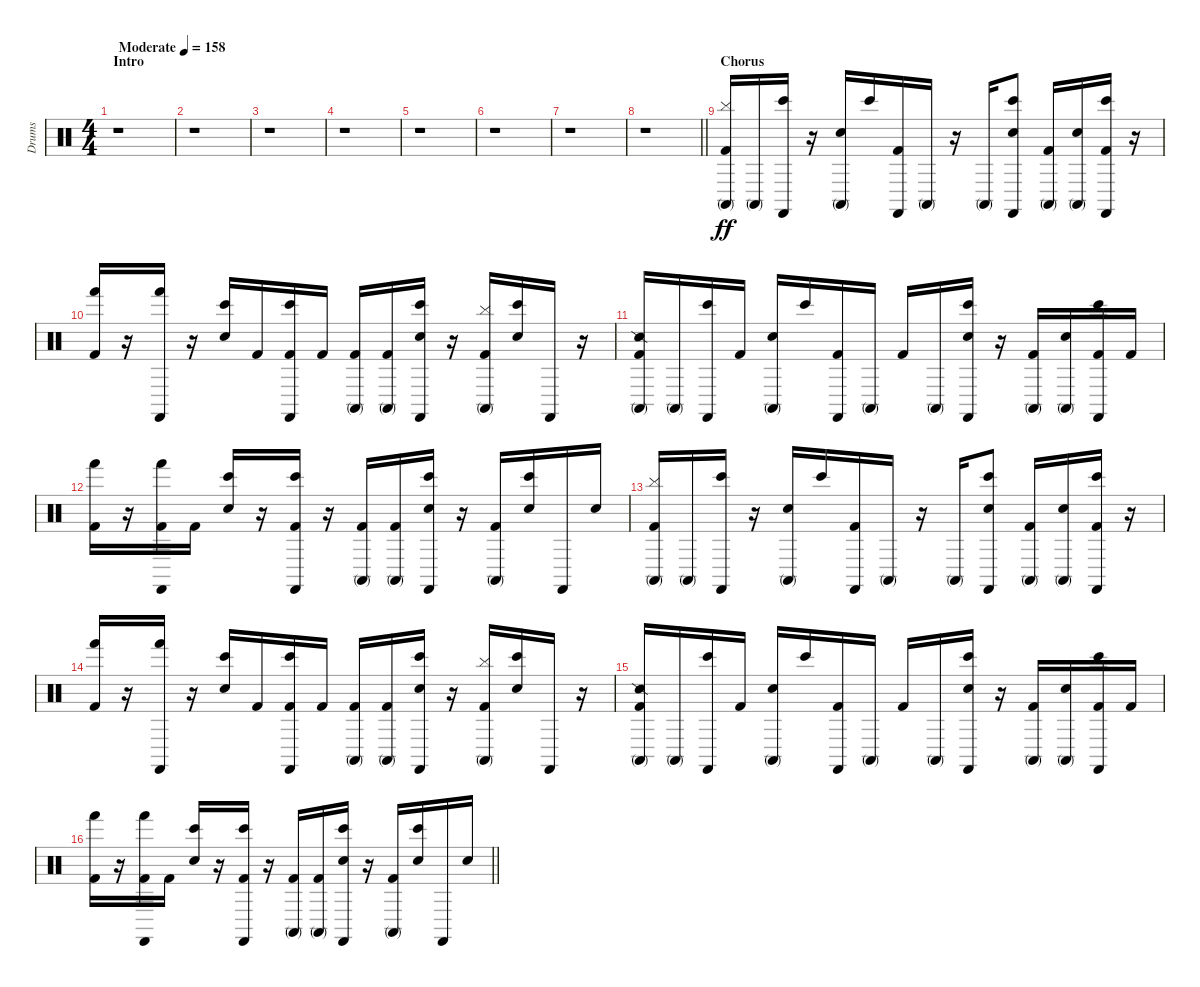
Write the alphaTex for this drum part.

\track ("Drums" "Drums") {instrument percussion}
\staff {score}
\articulation defaults
\ts (4 4)
\section ("" "Intro")
\tempo (158 "Moderate")
\clef neutral
\ks c
r.1{dy ff} |
r.1 |
r.1 |
r.1 |
r.1 |
r.1 |
r.1 |
\barLineRight lightlight
r.1 |
\section ("" "Chorus")
("Cymbal (hit)" "Kick (hit) 2" "Conga high (mute)").16 "Conga high (mute)".16 ("Bongo High (hit)" "Castanets (hit)").16 r.16 ("Snare (hit) 2" "Conga high (mute)").16 "Bongo High (hit)".16 ("Kick (hit) 2" "Castanets (hit)").16 "Conga high (mute)".16 r.16 "Conga high (mute)".16 ("Snare (hit) 2" "Bongo High (hit)" "Castanets (hit)").8 ("Kick (hit) 2" "Conga high (mute)").16 ("Snare (hit) 2" "Conga high (mute)").16 ("Kick (hit) 2" "Bongo High (hit)" "Castanets (hit)").16 r.16 |
("Kick (hit) 2" "Hand (hit)").16 r.16 ("Hand (hit)" "Castanets (hit)").16 r.16 ("Snare (hit) 2" "Bongo High (hit)").16 "Kick (hit) 2".16 ("Kick (hit) 2" "Bongo High (hit)" "Castanets (hit)").16 "Kick (hit) 2".16 ("Kick (hit) 2" "Conga high (mute)").16 ("Kick (hit) 2" "Conga high (mute)").16 ("Snare (hit) 2" "Bongo High (hit)" "Castanets (hit)").16 r.16 ("Cymbal (hit)" "Kick (hit) 2" "Conga high (mute)").16 ("Snare (hit) 2" "Bongo High (hit)").16 "Castanets (hit)".16 r.16 |
("Snare (side stick) 2" "Kick (hit) 2" "Conga high (mute)").16 "Conga high (mute)".16 ("Bongo High (hit)" "Castanets (hit)").16 "Kick (hit) 2".16 ("Snare (hit) 2" "Conga high (mute)").16 "Bongo High (hit)".16 ("Kick (hit) 2" "Castanets (hit)").16 "Conga high (mute)".16 "Kick (hit) 2".16 "Conga high (mute)".16 ("Snare (hit) 2" "Bongo High (hit)" "Castanets (hit)").16 r.16 ("Kick (hit) 2" "Conga high (mute)").16 ("Snare (hit) 2" "Conga high (mute)").16 ("Kick (hit) 2" "Bongo High (hit)" "Castanets (hit)").16 "Kick (hit) 2".16 |
("Kick (hit) 2" "Hand (hit)").16 r.16 ("Kick (hit) 2" "Hand (hit)" "Castanets (hit)").16 "Kick (hit) 2".16 ("Snare (hit) 2" "Bongo High (hit)").16 r.16 ("Kick (hit) 2" "Bongo High (hit)" "Castanets (hit)").16 r.16 ("Kick (hit) 2" "Conga high (mute)").16 ("Kick (hit) 2" "Conga high (mute)").16 ("Snare (hit) 2" "Bongo High (hit)" "Castanets (hit)").16 r.16 ("Kick (hit) 2" "Conga high (mute)").16 ("Snare (hit) 2" "Bongo High (hit)").16 "Castanets (hit)".16 "Snare (hit) 2".16 |
("Cymbal (hit)" "Kick (hit) 2" "Conga high (mute)").16 "Conga high (mute)".16 ("Bongo High (hit)" "Castanets (hit)").16 r.16 ("Snare (hit) 2" "Conga high (mute)").16 "Bongo High (hit)".16 ("Kick (hit) 2" "Castanets (hit)").16 "Conga high (mute)".16 r.16 "Conga high (mute)".16 ("Snare (hit) 2" "Bongo High (hit)" "Castanets (hit)").8 ("Kick (hit) 2" "Conga high (mute)").16 ("Snare (hit) 2" "Conga high (mute)").16 ("Kick (hit) 2" "Bongo High (hit)" "Castanets (hit)").16 r.16 |
("Kick (hit) 2" "Hand (hit)").16 r.16 ("Hand (hit)" "Castanets (hit)").16 r.16 ("Snare (hit) 2" "Bongo High (hit)").16 "Kick (hit) 2".16 ("Kick (hit) 2" "Bongo High (hit)" "Castanets (hit)").16 "Kick (hit) 2".16 ("Kick (hit) 2" "Conga high (mute)").16 ("Kick (hit) 2" "Conga high (mute)").16 ("Snare (hit) 2" "Bongo High (hit)" "Castanets (hit)").16 r.16 ("Cymbal (hit)" "Kick (hit) 2" "Conga high (mute)").16 ("Snare (hit) 2" "Bongo High (hit)").16 "Castanets (hit)".16 r.16 |
("Snare (side stick) 2" "Kick (hit) 2" "Conga high (mute)").16 "Conga high (mute)".16 ("Bongo High (hit)" "Castanets (hit)").16 "Kick (hit) 2".16 ("Snare (hit) 2" "Conga high (mute)").16 "Bongo High (hit)".16 ("Kick (hit) 2" "Castanets (hit)").16 "Conga high (mute)".16 "Kick (hit) 2".16 "Conga high (mute)".16 ("Snare (hit) 2" "Bongo High (hit)" "Castanets (hit)").16 r.16 ("Kick (hit) 2" "Conga high (mute)").16 ("Snare (hit) 2" "Conga high (mute)").16 ("Kick (hit) 2" "Bongo High (hit)" "Castanets (hit)").16 "Kick (hit) 2".16 |
\barLineRight lightlight
("Kick (hit) 2" "Hand (hit)").16 r.16 ("Kick (hit) 2" "Hand (hit)" "Castanets (hit)").16 "Kick (hit) 2".16 ("Snare (hit) 2" "Bongo High (hit)").16 r.16 ("Kick (hit) 2" "Bongo High (hit)" "Castanets (hit)").16 r.16 ("Kick (hit) 2" "Conga high (mute)").16 ("Kick (hit) 2" "Conga high (mute)").16 ("Snare (hit) 2" "Bongo High (hit)" "Castanets (hit)").16 r.16 ("Kick (hit) 2" "Conga high (mute)").16 ("Snare (hit) 2" "Bongo High (hit)").16 "Castanets (hit)".16 "Snare (hit) 2".16
